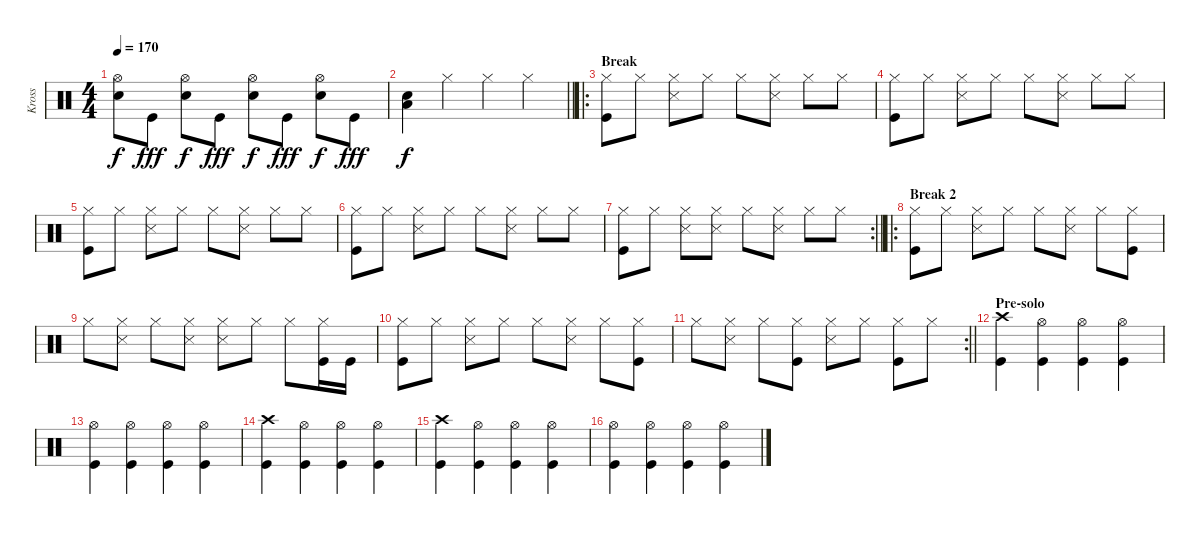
\track ("Kross" "Kross") {instrument percussion}
\staff {score}
\articulation defaults
\ts (4 4)
\tempo 170
\clef neutral
\ks c
("Hi-Hat (open)" "Electric Snare (hit)").8{dy f} "Kick (hit)".8{dy fff} ("Hi-Hat (open)" "Electric Snare (hit)").8{dy f} "Kick (hit)".8{dy fff} ("Hi-Hat (open)" "Electric Snare (hit)").8{dy f} "Kick (hit)".8{dy fff} ("Hi-Hat (open)" "Electric Snare (hit)").8{dy f} "Kick (hit)".8{dy fff} |
\barLineRight lightlight
("Low Floor Tom (hit)" "Electric Snare (hit)").4{dy f} "Hi-Hat (closed)".4 "Hi-Hat (closed)".4 "Hi-Hat (closed)".4 |
\ro
\section ("" "Break")
("Hi-Hat (closed)" "Kick (hit)").8 "Hi-Hat (closed)".8 ("Hi-Hat (closed)" "Snare (side stick) 3").8 "Hi-Hat (closed)".8 "Hi-Hat (closed)".8 ("Hi-Hat (closed)" "Snare (side stick) 3").8 "Hi-Hat (closed)".8 "Hi-Hat (closed)".8 |
("Hi-Hat (closed)" "Kick (hit)").8 "Hi-Hat (closed)".8 ("Hi-Hat (closed)" "Snare (side stick) 3").8 "Hi-Hat (closed)".8 "Hi-Hat (closed)".8 ("Hi-Hat (closed)" "Snare (side stick) 3").8 "Hi-Hat (closed)".8 "Hi-Hat (closed)".8 |
("Hi-Hat (closed)" "Kick (hit)").8 "Hi-Hat (closed)".8 ("Hi-Hat (closed)" "Snare (side stick) 3").8 "Hi-Hat (closed)".8 "Hi-Hat (closed)".8 ("Hi-Hat (closed)" "Snare (side stick) 3").8 "Hi-Hat (closed)".8 "Hi-Hat (closed)".8 |
("Hi-Hat (closed)" "Kick (hit)").8 "Hi-Hat (closed)".8 ("Hi-Hat (closed)" "Snare (side stick) 3").8 "Hi-Hat (closed)".8 "Hi-Hat (closed)".8 ("Hi-Hat (closed)" "Snare (side stick) 3").8 "Hi-Hat (closed)".8 "Hi-Hat (closed)".8 |
\rc 2
\barLineRight lightlight
("Hi-Hat (closed)" "Kick (hit)").8 "Hi-Hat (closed)".8 ("Hi-Hat (closed)" "Snare (side stick) 3").8 ("Hi-Hat (closed)" "Snare (side stick) 3").8 "Hi-Hat (closed)".8 ("Hi-Hat (closed)" "Snare (side stick) 3").8 "Hi-Hat (closed)".8 "Hi-Hat (closed)".8 |
\ro
\section ("" "Break 2")
("Hi-Hat (closed)" "Kick (hit)").8 "Hi-Hat (closed)".8 ("Hi-Hat (closed)" "Snare (side stick) 3").8 "Hi-Hat (closed)".8 "Hi-Hat (closed)".8 ("Hi-Hat (closed)" "Snare (side stick) 3").8 "Hi-Hat (closed)".8 ("Hi-Hat (closed)" "Kick (hit)").8 |
"Hi-Hat (closed)".8 ("Hi-Hat (closed)" "Snare (side stick) 3").8 "Hi-Hat (closed)".8 ("Hi-Hat (closed)" "Snare (side stick) 3").8 ("Hi-Hat (closed)" "Snare (side stick) 3").8 "Hi-Hat (closed)".8 "Hi-Hat (closed)".8 ("Hi-Hat (closed)" "Kick (hit)").16 "Kick (hit)".16 |
("Hi-Hat (closed)" "Kick (hit)").8 "Hi-Hat (closed)".8 ("Hi-Hat (closed)" "Snare (side stick) 3").8 "Hi-Hat (closed)".8 "Hi-Hat (closed)".8 ("Hi-Hat (closed)" "Snare (side stick) 3").8 "Hi-Hat (closed)".8 ("Hi-Hat (closed)" "Kick (hit)").8 |
\rc 2
\barLineRight lightlight "Hi-Hat (closed)".8
("Hi-Hat (closed)" "Snare (side stick) 3").8 "Hi-Hat (closed)".8 ("Hi-Hat (closed)" "Kick (hit)").8 ("Hi-Hat (closed)" "Snare (side stick) 3").8 "Hi-Hat (closed)".8 ("Hi-Hat (closed)" "Kick (hit)").8 "Hi-Hat (closed)".8 |
\section ("" "Pre-solo")
("Crash high (hit)" "Kick (hit)").4 ("Hi-Hat (open)" "Kick (hit)").4 ("Hi-Hat (open)" "Kick (hit)").4 ("Hi-Hat (open)" "Kick (hit)").4 |
("Hi-Hat (open)" "Kick (hit)").4 ("Hi-Hat (open)" "Kick (hit)").4 ("Hi-Hat (open)" "Kick (hit)").4 ("Hi-Hat (open)" "Kick (hit)").4 |
("Crash high (hit)" "Kick (hit)").4 ("Hi-Hat (open)" "Kick (hit)").4 ("Hi-Hat (open)" "Kick (hit)").4 ("Hi-Hat (open)" "Kick (hit)").4 |
("Crash high (hit)" "Kick (hit)").4 ("Hi-Hat (open)" "Kick (hit)").4 ("Hi-Hat (open)" "Kick (hit)").4 ("Hi-Hat (open)" "Kick (hit)").4 |
("Hi-Hat (open)" "Kick (hit)").4 ("Hi-Hat (open)" "Kick (hit)").4 ("Hi-Hat (open)" "Kick (hit)").4 ("Hi-Hat (open)" "Kick (hit)").4
